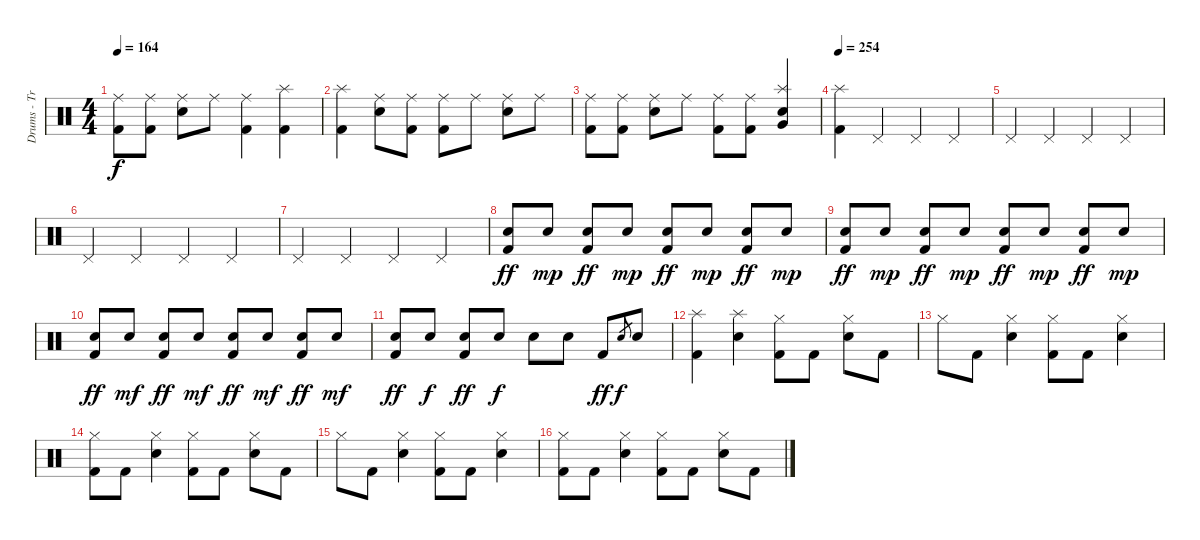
\track ("Drums - Travis Barker" "Drums - Tr") {instrument percussion}
\staff {score}
\articulation defaults
\ts (4 4)
\tempo 164
\clef neutral
\ks c
("Ride (middle)" "Kick (hit) 2").8{dy f} ("Ride (middle)" "Kick (hit) 2").8 ("Ride (middle)" "Electric Snare (hit)").8 "Ride (middle)".8 ("Ride (middle)" "Kick (hit) 2").4 ("Splash (hit)" "Kick (hit) 2").4 |
("Splash (hit)" "Kick (hit) 2").4 ("Ride (middle)" "Electric Snare (hit)").8 ("Ride (middle)" "Kick (hit) 2").8 ("Ride (middle)" "Kick (hit) 2").8 "Ride (middle)".8 ("Ride (middle)" "Electric Snare (hit)").8 "Ride (middle)".8 |
("Ride (middle)" "Kick (hit) 2").8 ("Ride (middle)" "Kick (hit) 2").8 ("Ride (middle)" "Electric Snare (hit)").8 "Ride (middle)".8 ("Ride (middle)" "Kick (hit) 2").8 ("Ride (middle)" "Kick (hit) 2").8 ("Splash (hit)" "Very Low Tom (hit)" "Electric Snare (hit)").4 |
\tempo 254
("Splash (hit)" "Kick (hit) 2").4 "Pedal Hi-Hat (hit)".4 "Pedal Hi-Hat (hit)".4 "Pedal Hi-Hat (hit)".4 |
"Pedal Hi-Hat (hit)".4 "Pedal Hi-Hat (hit)".4 "Pedal Hi-Hat (hit)".4 "Pedal Hi-Hat (hit)".4 |
"Pedal Hi-Hat (hit)".4 "Pedal Hi-Hat (hit)".4 "Pedal Hi-Hat (hit)".4 "Pedal Hi-Hat (hit)".4 |
"Pedal Hi-Hat (hit)".4 "Pedal Hi-Hat (hit)".4 "Pedal Hi-Hat (hit)".4 "Pedal Hi-Hat (hit)".4 |
("Electric Snare (hit)" "Kick (hit) 2").8{dy ff} "Electric Snare (hit)".8{dy mp} ("Electric Snare (hit)" "Kick (hit) 2").8{dy ff} "Electric Snare (hit)".8{dy mp} ("Electric Snare (hit)" "Kick (hit) 2").8{dy ff} "Electric Snare (hit)".8{dy mp} ("Electric Snare (hit)" "Kick (hit) 2").8{dy ff} "Electric Snare (hit)".8{dy mp} |
("Electric Snare (hit)" "Kick (hit) 2").8{dy ff} "Electric Snare (hit)".8{dy mp} ("Electric Snare (hit)" "Kick (hit) 2").8{dy ff} "Electric Snare (hit)".8{dy mp} ("Electric Snare (hit)" "Kick (hit) 2").8{dy ff} "Electric Snare (hit)".8{dy mp} ("Electric Snare (hit)" "Kick (hit) 2").8{dy ff} "Electric Snare (hit)".8{dy mp} |
("Electric Snare (hit)" "Kick (hit) 2").8{dy ff} "Electric Snare (hit)".8{dy mf} ("Electric Snare (hit)" "Kick (hit) 2").8{dy ff} "Electric Snare (hit)".8{dy mf} ("Electric Snare (hit)" "Kick (hit) 2").8{dy ff} "Electric Snare (hit)".8{dy mf} ("Electric Snare (hit)" "Kick (hit) 2").8{dy ff} "Electric Snare (hit)".8{dy mf} |
("Electric Snare (hit)" "Kick (hit) 2").8{dy ff} "Electric Snare (hit)".8{dy f} ("Electric Snare (hit)" "Kick (hit) 2").8{dy ff} "Electric Snare (hit)".8{dy f} "Electric Snare (hit)".8 "Electric Snare (hit)".8 "Kick (hit) 2".8{dy ff} "Electric Snare (hit)".8{gr dy f} "Electric Snare (hit)".8 |
("Splash (hit)" "Kick (hit) 2").4 ("Splash (hit)" "Electric Snare (hit)").4 ("Hi-Hat (closed)" "Kick (hit) 2").8 "Kick (hit) 2".8 ("Hi-Hat (closed)" "Electric Snare (hit)").8 "Kick (hit) 2".8 |
"Hi-Hat (closed)".8 "Kick (hit) 2".8 ("Hi-Hat (closed)" "Electric Snare (hit)").4 ("Hi-Hat (closed)" "Kick (hit) 2").8 "Kick (hit) 2".8 ("Hi-Hat (closed)" "Electric Snare (hit)").4 |
("Hi-Hat (closed)" "Kick (hit) 2").8 "Kick (hit) 2".8 ("Hi-Hat (closed)" "Electric Snare (hit)").4 ("Hi-Hat (closed)" "Kick (hit) 2").8 "Kick (hit) 2".8 ("Hi-Hat (closed)" "Electric Snare (hit)").8 "Kick (hit) 2".8 |
"Hi-Hat (closed)".8 "Kick (hit) 2".8 ("Hi-Hat (closed)" "Electric Snare (hit)").4 ("Hi-Hat (closed)" "Kick (hit) 2").8 "Kick (hit) 2".8 ("Hi-Hat (closed)" "Electric Snare (hit)").4 |
("Hi-Hat (closed)" "Kick (hit) 2").8 "Kick (hit) 2".8 ("Hi-Hat (closed)" "Electric Snare (hit)").4 ("Hi-Hat (closed)" "Kick (hit) 2").8 "Kick (hit) 2".8 ("Hi-Hat (closed)" "Electric Snare (hit)").8 "Kick (hit) 2".8
